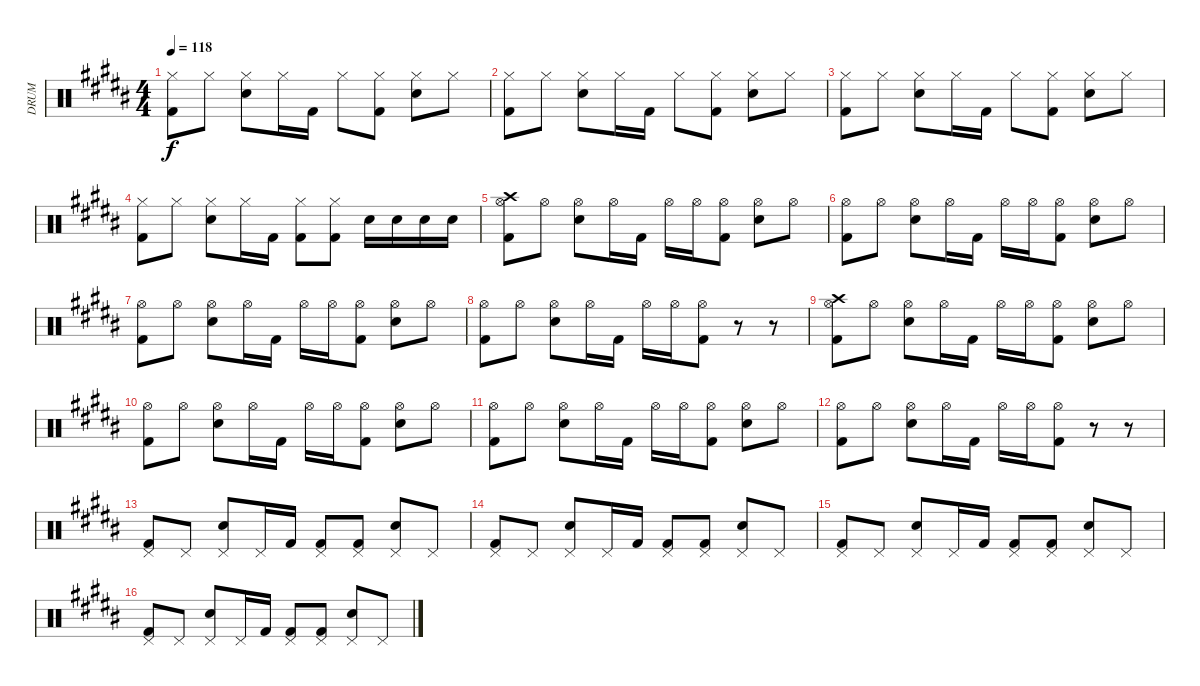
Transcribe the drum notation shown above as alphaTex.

\track ("DRUM" "DRUM") {instrument percussion}
\staff {score}
\articulation defaults
\ts (4 4)
\tempo 118
\clef neutral
\ks b
("Hi-Hat (closed)" "Kick (hit) 2").8{dy f} "Hi-Hat (closed)".8 ("Hi-Hat (closed)" "Electric Snare (hit)").8 "Hi-Hat (closed)".16 "Kick (hit) 2".16 "Hi-Hat (closed)".8 ("Hi-Hat (closed)" "Kick (hit) 2").8 ("Hi-Hat (closed)" "Electric Snare (hit)").8 "Hi-Hat (closed)".8 |
("Hi-Hat (closed)" "Kick (hit) 2").8 "Hi-Hat (closed)".8 ("Hi-Hat (closed)" "Electric Snare (hit)").8 "Hi-Hat (closed)".16 "Kick (hit) 2".16 "Hi-Hat (closed)".8 ("Hi-Hat (closed)" "Kick (hit) 2").8 ("Hi-Hat (closed)" "Electric Snare (hit)").8 "Hi-Hat (closed)".8 |
("Hi-Hat (closed)" "Kick (hit) 2").8 "Hi-Hat (closed)".8 ("Hi-Hat (closed)" "Electric Snare (hit)").8 "Hi-Hat (closed)".16 "Kick (hit) 2".16 "Hi-Hat (closed)".8 ("Hi-Hat (closed)" "Kick (hit) 2").8 ("Hi-Hat (closed)" "Electric Snare (hit)").8 "Hi-Hat (closed)".8 |
("Hi-Hat (closed)" "Kick (hit) 2").8 "Hi-Hat (closed)".8 ("Hi-Hat (closed)" "Electric Snare (hit)").8 "Hi-Hat (closed)".16 "Kick (hit) 2".16 ("Hi-Hat (closed)" "Kick (hit) 2").8 ("Hi-Hat (closed)" "Kick (hit) 2").8 "Electric Snare (hit)".16 "Electric Snare (hit)".16 "Electric Snare (hit)".16 "Electric Snare (hit)".16 |
("Crash high (hit)" "Hi-Hat (open)" "Kick (hit) 2").8 "Hi-Hat (open)".8 ("Hi-Hat (open)" "Electric Snare (hit)").8 "Hi-Hat (open)".16 "Kick (hit) 2".16 "Hi-Hat (open)".16 "Hi-Hat (open)".16 ("Hi-Hat (open)" "Kick (hit) 2").8 ("Hi-Hat (open)" "Electric Snare (hit)").8 "Hi-Hat (open)".8 |
("Hi-Hat (open)" "Kick (hit) 2").8 "Hi-Hat (open)".8 ("Hi-Hat (open)" "Electric Snare (hit)").8 "Hi-Hat (open)".16 "Kick (hit) 2".16 "Hi-Hat (open)".16 "Hi-Hat (open)".16 ("Hi-Hat (open)" "Kick (hit) 2").8 ("Hi-Hat (open)" "Electric Snare (hit)").8 "Hi-Hat (open)".8 |
("Hi-Hat (open)" "Kick (hit) 2").8 "Hi-Hat (open)".8 ("Hi-Hat (open)" "Electric Snare (hit)").8 "Hi-Hat (open)".16 "Kick (hit) 2".16 "Hi-Hat (open)".16 "Hi-Hat (open)".16 ("Hi-Hat (open)" "Kick (hit) 2").8 ("Hi-Hat (open)" "Electric Snare (hit)").8 "Hi-Hat (open)".8 |
("Hi-Hat (open)" "Kick (hit) 2").8 "Hi-Hat (open)".8 ("Hi-Hat (open)" "Electric Snare (hit)").8 "Hi-Hat (open)".16 "Kick (hit) 2".16 "Hi-Hat (open)".16 "Hi-Hat (open)".16 ("Hi-Hat (open)" "Kick (hit) 2").8 r.8 r.8 |
("Crash high (hit)" "Hi-Hat (open)" "Kick (hit) 2").8 "Hi-Hat (open)".8 ("Hi-Hat (open)" "Electric Snare (hit)").8 "Hi-Hat (open)".16 "Kick (hit) 2".16 "Hi-Hat (open)".16 "Hi-Hat (open)".16 ("Hi-Hat (open)" "Kick (hit) 2").8 ("Hi-Hat (open)" "Electric Snare (hit)").8 "Hi-Hat (open)".8 |
("Hi-Hat (open)" "Kick (hit) 2").8 "Hi-Hat (open)".8 ("Hi-Hat (open)" "Electric Snare (hit)").8 "Hi-Hat (open)".16 "Kick (hit) 2".16 "Hi-Hat (open)".16 "Hi-Hat (open)".16 ("Hi-Hat (open)" "Kick (hit) 2").8 ("Hi-Hat (open)" "Electric Snare (hit)").8 "Hi-Hat (open)".8 |
("Hi-Hat (open)" "Kick (hit) 2").8 "Hi-Hat (open)".8 ("Hi-Hat (open)" "Electric Snare (hit)").8 "Hi-Hat (open)".16 "Kick (hit) 2".16 "Hi-Hat (open)".16 "Hi-Hat (open)".16 ("Hi-Hat (open)" "Kick (hit) 2").8 ("Hi-Hat (open)" "Electric Snare (hit)").8 "Hi-Hat (open)".8 |
("Hi-Hat (open)" "Kick (hit) 2").8 "Hi-Hat (open)".8 ("Hi-Hat (open)" "Electric Snare (hit)").8 "Hi-Hat (open)".16 "Kick (hit) 2".16 "Hi-Hat (open)".16 "Hi-Hat (open)".16 ("Hi-Hat (open)" "Kick (hit) 2").8 r.8 r.8 |
("Pedal Hi-Hat (hit)" "Kick (hit) 2").8 "Pedal Hi-Hat (hit)".8 ("Pedal Hi-Hat (hit)" "Electric Snare (hit)").8 "Pedal Hi-Hat (hit)".16 "Kick (hit) 2".16 ("Pedal Hi-Hat (hit)" "Kick (hit) 2").8 ("Pedal Hi-Hat (hit)" "Kick (hit) 2").8 ("Pedal Hi-Hat (hit)" "Electric Snare (hit)").8 "Pedal Hi-Hat (hit)".8 |
("Pedal Hi-Hat (hit)" "Kick (hit) 2").8 "Pedal Hi-Hat (hit)".8 ("Pedal Hi-Hat (hit)" "Electric Snare (hit)").8 "Pedal Hi-Hat (hit)".16 "Kick (hit) 2".16 ("Pedal Hi-Hat (hit)" "Kick (hit) 2").8 ("Pedal Hi-Hat (hit)" "Kick (hit) 2").8 ("Pedal Hi-Hat (hit)" "Electric Snare (hit)").8 "Pedal Hi-Hat (hit)".8 |
("Pedal Hi-Hat (hit)" "Kick (hit) 2").8 "Pedal Hi-Hat (hit)".8 ("Pedal Hi-Hat (hit)" "Electric Snare (hit)").8 "Pedal Hi-Hat (hit)".16 "Kick (hit) 2".16 ("Pedal Hi-Hat (hit)" "Kick (hit) 2").8 ("Pedal Hi-Hat (hit)" "Kick (hit) 2").8 ("Pedal Hi-Hat (hit)" "Electric Snare (hit)").8 "Pedal Hi-Hat (hit)".8 |
("Pedal Hi-Hat (hit)" "Kick (hit) 2").8 "Pedal Hi-Hat (hit)".8 ("Pedal Hi-Hat (hit)" "Electric Snare (hit)").8 "Pedal Hi-Hat (hit)".16 "Kick (hit) 2".16 ("Pedal Hi-Hat (hit)" "Kick (hit) 2").8 ("Pedal Hi-Hat (hit)" "Kick (hit) 2").8 ("Pedal Hi-Hat (hit)" "Electric Snare (hit)").8 "Pedal Hi-Hat (hit)".8
